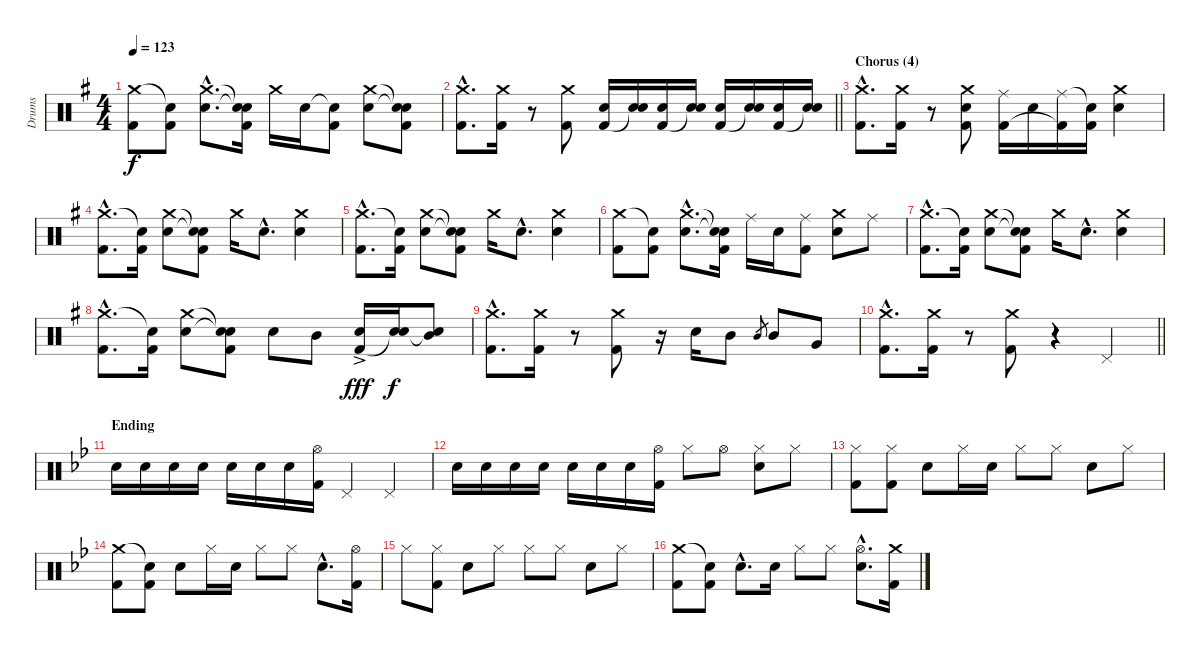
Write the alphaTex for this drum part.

\track ("Drums" "Drums") {instrument percussion}
\staff {score}
\articulation defaults
\ts (4 4)
\tempo 123
\clef neutral
\ks eminor
("Crash medium (hit)" "Kick (hit) 2").8{dy f} ("Snare (hit)"{t} "Kick (hit) 2").8 ("Crash medium (hit)"{hac} "Electric Snare (hit)"{hac}).8{d} ("Snare (hit)"{t} "Electric Snare (hit)"{t} "Kick (hit) 2").16 "Crash medium (hit)".16 "Electric Snare (hit)".16 ("Electric Snare (hit)"{t} "Kick (hit) 2").8 ("Crash medium (hit)" "Electric Snare (hit)").8 ("Snare (hit)"{t} "Snare (hit)"{t} "Kick (hit) 2").8 |
\barLineRight lightlight
("Crash medium (hit)"{hac} "Kick (hit) 2"{hac}).8{d} ("Crash medium (hit)" "Kick (hit) 2").16 r.8 ("Crash medium (hit)" "Kick (hit) 2").8 ("Electric Snare (hit)" "Kick (hit) 2").16 ("Electric Snare (hit)" "Snare (hit)"{t}).16 ("Electric Snare (hit)" "Kick (hit) 2").16 ("Electric Snare (hit)" "Snare (hit)"{t}).16 ("Electric Snare (hit)" "Kick (hit) 2").16 ("Electric Snare (hit)" "Snare (hit)"{t}).16 ("Electric Snare (hit)" "Kick (hit) 2").16 ("Electric Snare (hit)" "Snare (hit)"{t}).16 |
\section ("" "Chorus (4)")
("Crash medium (hit)"{hac} "Kick (hit) 2"{hac}).8{d} ("Crash medium (hit)" "Kick (hit) 2").16 r.8 ("Crash medium (hit)" "Electric Snare (hit)" "Kick (hit) 2").8 ("Ride (middle)" "Kick (hit) 2").16 "Electric Snare (hit)".16 ("Ride (middle)" "Kick (hit) 2"{t}).16 ("Snare (hit)"{t} "Kick (hit) 2").16 ("Crash medium (hit)" "Electric Snare (hit)").4 |
("Crash medium (hit)"{hac} "Kick (hit) 2"{hac}).8{d} ("Snare (hit)"{t} "Kick (hit) 2").16 ("Crash medium (hit)" "Electric Snare (hit)").8 ("Snare (hit)"{t} "Snare (hit)"{t} "Kick (hit) 2").8 "Crash medium (hit)".16 "Electric Snare (hit)"{hac}.8{d} ("Crash medium (hit)" "Electric Snare (hit)").4 |
("Crash medium (hit)"{hac} "Kick (hit) 2"{hac}).8{d} ("Snare (hit)"{t} "Kick (hit) 2").16 ("Crash medium (hit)" "Electric Snare (hit)").8 ("Snare (hit)"{t} "Snare (hit)"{t} "Kick (hit) 2").8 "Crash medium (hit)".16 "Electric Snare (hit)"{hac}.8{d} ("Crash medium (hit)" "Electric Snare (hit)").4 |
("Crash medium (hit)" "Kick (hit) 2").8 ("Snare (hit)"{t} "Kick (hit) 2").8 ("Crash medium (hit)"{hac} "Electric Snare (hit)"{hac}).8{d} ("Snare (hit)"{t} "Snare (hit)"{t} "Kick (hit) 2").16 "Ride (middle)".16 "Electric Snare (hit)".16 ("Ride (middle)" "Kick (hit) 2").8 ("Crash medium (hit)" "Electric Snare (hit)").8 "Ride (middle)".8 |
("Crash medium (hit)"{hac} "Kick (hit) 2"{hac}).8{d} ("Snare (hit)"{t} "Kick (hit) 2").16 ("Crash medium (hit)" "Electric Snare (hit)").8 ("Snare (hit)"{t} "Snare (hit)"{t} "Kick (hit) 2").8 "Crash medium (hit)".16 "Electric Snare (hit)"{hac}.8{d} ("Crash medium (hit)" "Electric Snare (hit)").4 |
("Crash medium (hit)"{hac} "Kick (hit) 2"{hac}).8{d} ("Snare (hit)"{t} "Kick (hit) 2").16 ("Crash medium (hit)" "Electric Snare (hit)").8 ("Snare (hit)"{t} "Electric Snare (hit)"{t} "Kick (hit) 2").8 "Electric Snare (hit)".8 "Mid Tom (hit)".8 ("Electric Snare (hit)"{ac} "Kick (hit) 2").16{dy fff} ("Electric Snare (hit)" "Snare (hit)"{t}).16{dy f} ("Mid Tom (hit)" "Snare (hit)"{t}).8 |
("Crash medium (hit)"{hac} "Kick (hit) 2"{hac}).8{d} ("Crash medium (hit)" "Kick (hit) 2").16 r.8 ("Crash medium (hit)" "Kick (hit) 2").8 r.16 "Electric Snare (hit)".16 "Mid Tom (hit)".8 "Mid Tom (hit)".8{gr} "Mid Tom (hit)".8 "Very Low Tom (hit)".8 |
\barLineRight lightlight
("Crash medium (hit)"{hac} "Kick (hit) 2"{hac}).8{d} ("Crash medium (hit)" "Kick (hit) 2").16 r.8 ("Crash medium (hit)" "Kick (hit) 2").8 r.4 "Pedal Hi-Hat (hit)".4 |
\section ("" "Ending")
\ks gminor "Electric Snare (hit)".16 "Electric Snare (hit)".16 "Electric Snare (hit)".16 "Electric Snare (hit)".16 "Electric Snare (hit)".16 "Electric Snare (hit)".16 "Electric Snare (hit)".16
("Hi-Hat (open)" "Kick (hit) 2").16 "Pedal Hi-Hat (hit)".4 "Pedal Hi-Hat (hit)".4 |
"Electric Snare (hit)".16 "Electric Snare (hit)".16 "Electric Snare (hit)".16 "Electric Snare (hit)".16 "Electric Snare (hit)".16 "Electric Snare (hit)".16 "Electric Snare (hit)".16 ("Hi-Hat (open)" "Kick (hit) 2").16 "Hi-Hat (closed)".8 "Hi-Hat (open)".8 ("Hi-Hat (closed)" "Electric Snare (hit)").8 "Hi-Hat (closed)".8 |
("Hi-Hat (closed)" "Kick (hit) 2").8 ("Hi-Hat (closed)" "Kick (hit) 2").8 "Electric Snare (hit)".8 "Hi-Hat (closed)".16 "Electric Snare (hit)".16 "Hi-Hat (closed)".8 "Hi-Hat (closed)".8 "Electric Snare (hit)".8 "Hi-Hat (closed)".8 |
("Crash medium (hit)" "Kick (hit) 2").8 ("Snare (hit)"{t} "Kick (hit) 2").8 "Electric Snare (hit)".8 "Hi-Hat (closed)".16 "Electric Snare (hit)".16 "Hi-Hat (closed)".8 "Hi-Hat (closed)".8 "Electric Snare (hit)"{hac}.8{d} ("Hi-Hat (open)" "Kick (hit) 2").16 |
"Hi-Hat (closed)".8 ("Hi-Hat (closed)" "Kick (hit) 2").8 "Electric Snare (hit)".8 "Hi-Hat (closed)".8 "Hi-Hat (closed)".8 "Hi-Hat (closed)".8 "Electric Snare (hit)".8 "Hi-Hat (closed)".8 |
("Crash medium (hit)" "Kick (hit) 2").8 ("Snare (hit)"{t} "Kick (hit) 2").8 "Electric Snare (hit)"{hac}.8{d} "Electric Snare (hit)".16 "Hi-Hat (closed)".8 "Hi-Hat (closed)".8 ("Hi-Hat (open)"{hac} "Electric Snare (hit)"{hac}).8{d} ("Crash medium (hit)" "Kick (hit) 2").16
